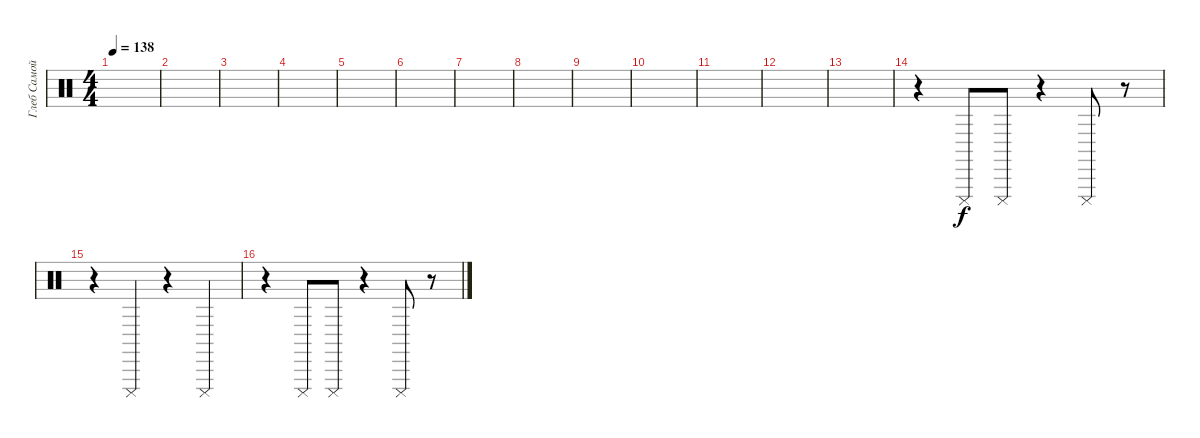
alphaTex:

\track ("Глеб Самойлов (fx)" "Глеб Самой") {instrument percussion}
\staff {score}
\articulation defaults
\ts (4 4)
\tempo 138
\clef neutral
\ks c
|
|
|
|
|
|
|
|
|
|
|
|
|
r.4 "Cuica (mute)".8 "Cuica (mute)".8 r.4 "Cuica (mute)".8 r.8 |
r.4 "Cuica (mute)".4 r.4 "Cuica (mute)".4 |
r.4 "Cuica (mute)".8 "Cuica (mute)".8 r.4 "Cuica (mute)".8 r.8
